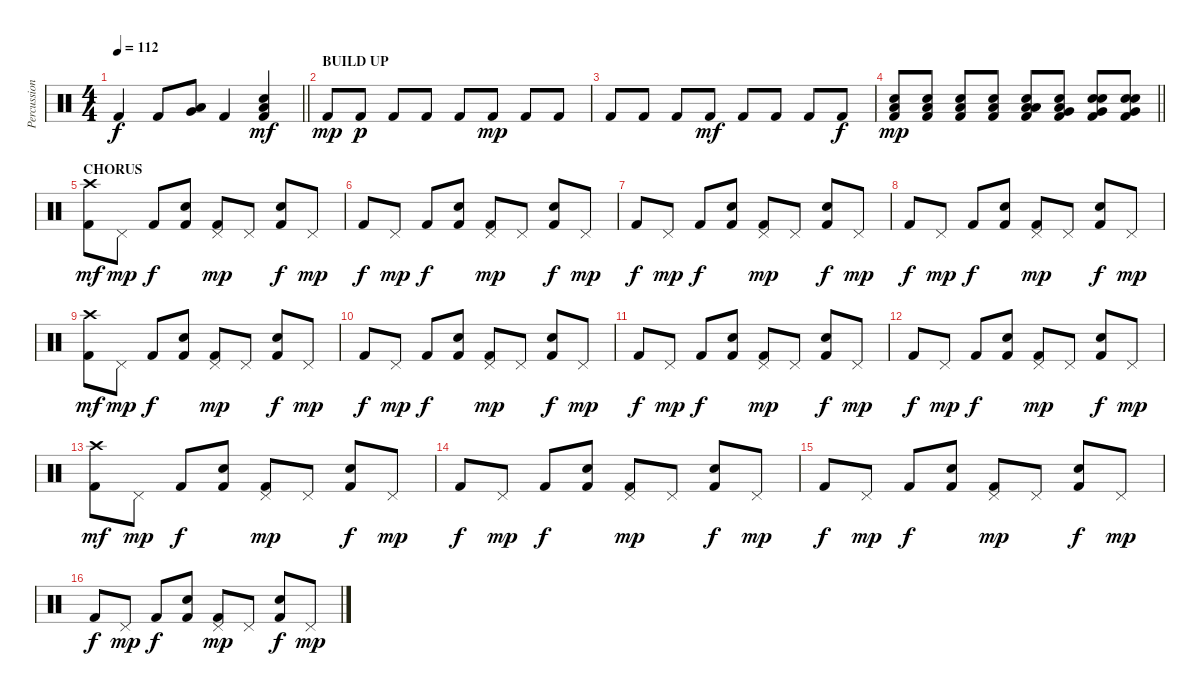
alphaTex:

\track ("Percussion" "Percussion") {instrument percussion}
\staff {score}
\articulation defaults
\ts (4 4)
\tempo 112
\clef neutral
\barLineRight lightlight
\ks c "Kick (hit) 2".4{dy f} "Kick (hit) 2".8
("Low Floor Tom (hit)" "Very Low Tom (hit)").8 "Kick (hit) 2".4 ("Kick (hit) 2" "Low Floor Tom (hit)" "Snare (hit) 2").4{dy mf} |
\section ("" "BUILD UP")
"Kick (hit) 2".8{dy mp} "Kick (hit) 2".8{dy p} "Kick (hit) 2".8 "Kick (hit) 2".8 "Kick (hit) 2".8 "Kick (hit) 2".8{dy mp} "Kick (hit) 2".8 "Kick (hit) 2".8 |
"Kick (hit) 2".8 "Kick (hit) 2".8 "Kick (hit) 2".8 "Kick (hit) 2".8{dy mf} "Kick (hit) 2".8 "Kick (hit) 2".8 "Kick (hit) 2".8 "Kick (hit) 2".8{dy f} |
\barLineRight lightlight
("Kick (hit) 2" "Low Floor Tom (hit)" "Electric Snare (hit)").8{dy mp} ("Kick (hit) 2" "Low Floor Tom (hit)" "Electric Snare (hit)").8 ("Kick (hit) 2" "Low Floor Tom (hit)" "Electric Snare (hit)").8 ("Kick (hit) 2" "Low Floor Tom (hit)" "Electric Snare (hit)").8 ("Kick (hit) 2" "Low Floor Tom (hit)" "Low Floor Tom (hit)" "Electric Snare (hit)").8 ("Kick (hit) 2" "Low Floor Tom (hit)" "Very Low Tom (hit)" "Electric Snare (hit)").8 ("Kick (hit) 2" "Snare (hit)" "Very Low Tom (hit)" "Electric Snare (hit)").8 ("Kick (hit) 2" "Snare (hit)" "Very Low Tom (hit)" "Electric Snare (hit)").8 |
\section ("" "CHORUS")
("Kick (hit) 2" "Crash high (hit)").8{dy mf} "Pedal Hi-Hat (hit)".8{dy mp} "Kick (hit) 2".8{dy f} ("Kick (hit) 2" "Snare (hit) 2").8 ("Kick (hit) 2" "Pedal Hi-Hat (hit)").8{dy mp} "Pedal Hi-Hat (hit)".8 ("Kick (hit) 2" "Snare (hit) 2").8{dy f} "Pedal Hi-Hat (hit)".8{dy mp} |
"Kick (hit) 2".8{dy f} "Pedal Hi-Hat (hit)".8{dy mp} "Kick (hit) 2".8{dy f} ("Kick (hit) 2" "Snare (hit) 2").8 ("Kick (hit) 2" "Pedal Hi-Hat (hit)").8{dy mp} "Pedal Hi-Hat (hit)".8 ("Kick (hit) 2" "Snare (hit) 2").8{dy f} "Pedal Hi-Hat (hit)".8{dy mp} |
"Kick (hit) 2".8{dy f} "Pedal Hi-Hat (hit)".8{dy mp} "Kick (hit) 2".8{dy f} ("Kick (hit) 2" "Snare (hit) 2").8 ("Kick (hit) 2" "Pedal Hi-Hat (hit)").8{dy mp} "Pedal Hi-Hat (hit)".8 ("Kick (hit) 2" "Snare (hit) 2").8{dy f} "Pedal Hi-Hat (hit)".8{dy mp} |
"Kick (hit) 2".8{dy f} "Pedal Hi-Hat (hit)".8{dy mp} "Kick (hit) 2".8{dy f} ("Kick (hit) 2" "Snare (hit) 2").8 ("Kick (hit) 2" "Pedal Hi-Hat (hit)").8{dy mp} "Pedal Hi-Hat (hit)".8 ("Kick (hit) 2" "Snare (hit) 2").8{dy f} "Pedal Hi-Hat (hit)".8{dy mp} |
("Kick (hit) 2" "Crash high (hit)").8{dy mf} "Pedal Hi-Hat (hit)".8{dy mp} "Kick (hit) 2".8{dy f} ("Kick (hit) 2" "Snare (hit) 2").8 ("Kick (hit) 2" "Pedal Hi-Hat (hit)").8{dy mp} "Pedal Hi-Hat (hit)".8 ("Kick (hit) 2" "Snare (hit) 2").8{dy f} "Pedal Hi-Hat (hit)".8{dy mp} |
"Kick (hit) 2".8{dy f} "Pedal Hi-Hat (hit)".8{dy mp} "Kick (hit) 2".8{dy f} ("Kick (hit) 2" "Snare (hit) 2").8 ("Kick (hit) 2" "Pedal Hi-Hat (hit)").8{dy mp} "Pedal Hi-Hat (hit)".8 ("Kick (hit) 2" "Snare (hit) 2").8{dy f} "Pedal Hi-Hat (hit)".8{dy mp} |
"Kick (hit) 2".8{dy f} "Pedal Hi-Hat (hit)".8{dy mp} "Kick (hit) 2".8{dy f} ("Kick (hit) 2" "Snare (hit) 2").8 ("Kick (hit) 2" "Pedal Hi-Hat (hit)").8{dy mp} "Pedal Hi-Hat (hit)".8 ("Kick (hit) 2" "Snare (hit) 2").8{dy f} "Pedal Hi-Hat (hit)".8{dy mp} |
"Kick (hit) 2".8{dy f} "Pedal Hi-Hat (hit)".8{dy mp} "Kick (hit) 2".8{dy f} ("Kick (hit) 2" "Snare (hit) 2").8 ("Kick (hit) 2" "Pedal Hi-Hat (hit)").8{dy mp} "Pedal Hi-Hat (hit)".8 ("Kick (hit) 2" "Snare (hit) 2").8{dy f} "Pedal Hi-Hat (hit)".8{dy mp} |
("Kick (hit) 2" "Crash high (hit)").8{dy mf} "Pedal Hi-Hat (hit)".8{dy mp} "Kick (hit) 2".8{dy f} ("Kick (hit) 2" "Snare (hit) 2").8 ("Kick (hit) 2" "Pedal Hi-Hat (hit)").8{dy mp} "Pedal Hi-Hat (hit)".8 ("Kick (hit) 2" "Snare (hit) 2").8{dy f} "Pedal Hi-Hat (hit)".8{dy mp} |
"Kick (hit) 2".8{dy f} "Pedal Hi-Hat (hit)".8{dy mp} "Kick (hit) 2".8{dy f} ("Kick (hit) 2" "Snare (hit) 2").8 ("Kick (hit) 2" "Pedal Hi-Hat (hit)").8{dy mp} "Pedal Hi-Hat (hit)".8 ("Kick (hit) 2" "Snare (hit) 2").8{dy f} "Pedal Hi-Hat (hit)".8{dy mp} |
"Kick (hit) 2".8{dy f} "Pedal Hi-Hat (hit)".8{dy mp} "Kick (hit) 2".8{dy f} ("Kick (hit) 2" "Snare (hit) 2").8 ("Kick (hit) 2" "Pedal Hi-Hat (hit)").8{dy mp} "Pedal Hi-Hat (hit)".8 ("Kick (hit) 2" "Snare (hit) 2").8{dy f} "Pedal Hi-Hat (hit)".8{dy mp} |
"Kick (hit) 2".8{dy f} "Pedal Hi-Hat (hit)".8{dy mp} "Kick (hit) 2".8{dy f} ("Kick (hit) 2" "Snare (hit) 2").8 ("Kick (hit) 2" "Pedal Hi-Hat (hit)").8{dy mp} "Pedal Hi-Hat (hit)".8 ("Kick (hit) 2" "Snare (hit) 2").8{dy f} "Pedal Hi-Hat (hit)".8{dy mp}
